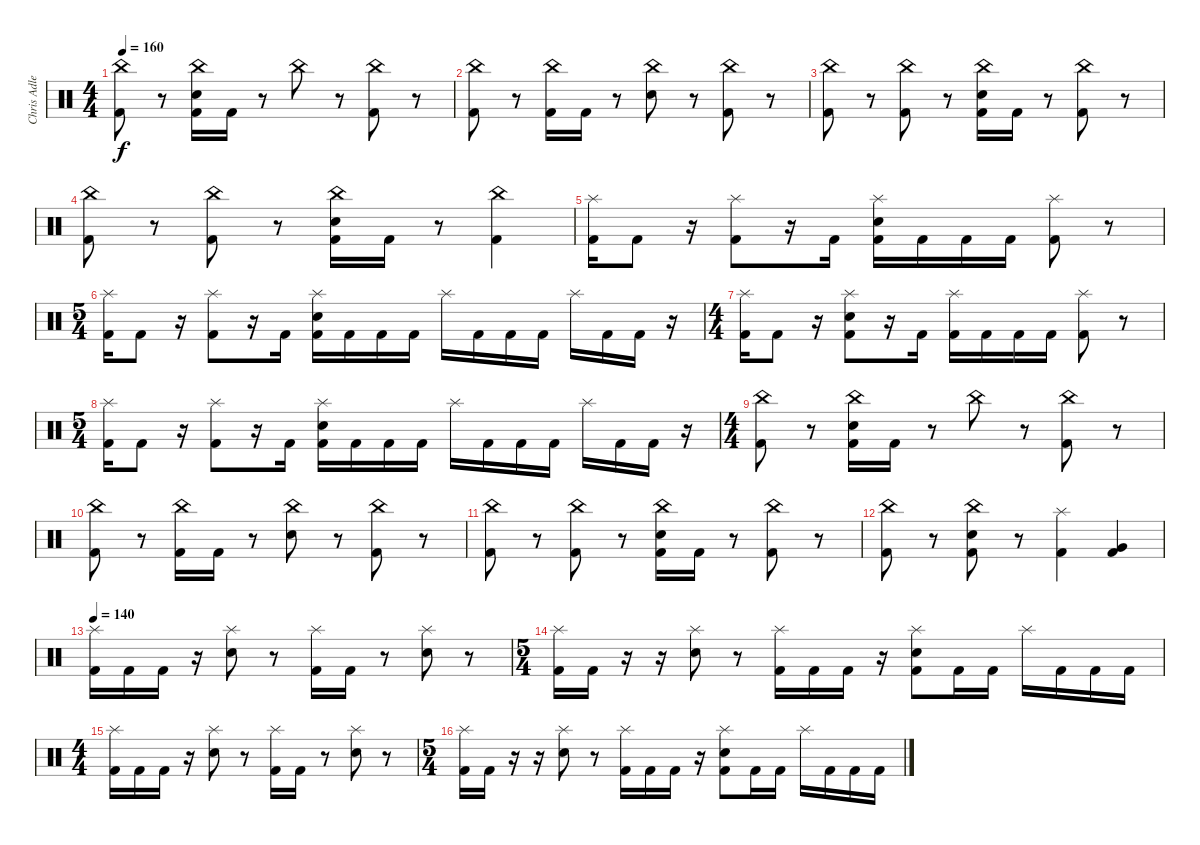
\track ("Chris Adler" "Chris Adle") {instrument percussion}
\staff {score}
\articulation defaults
\ts (4 4)
\tempo 160
\clef neutral
\ks c
("China (hit)" "Kick (hit) 2").8{dy f} r.8 ("China (hit)" "Electric Snare (hit)" "Kick (hit) 2").16 "Kick (hit) 2".16 r.8 "China (hit)".8 r.8 ("China (hit)" "Kick (hit) 2").8 r.8 |
("China (hit)" "Kick (hit) 2").8 r.8 ("China (hit)" "Kick (hit) 2").16 "Kick (hit) 2".16 r.8 ("China (hit)" "Electric Snare (hit)").8 r.8 ("China (hit)" "Kick (hit) 2").8 r.8 |
("China (hit)" "Kick (hit) 2").8 r.8 ("China (hit)" "Kick (hit) 2").8 r.8 ("China (hit)" "Electric Snare (hit)" "Kick (hit) 2").16 "Kick (hit) 2".16 r.8 ("China (hit)" "Kick (hit) 2").8 r.8 |
("China (hit)" "Kick (hit) 2").8 r.8 ("China (hit)" "Kick (hit) 2").8 r.8 ("China (hit)" "Electric Snare (hit)" "Kick (hit) 2").16 "Kick (hit) 2".16 r.8 ("China (hit)" "Kick (hit) 2").4 |
("Splash (hit)" "Kick (hit) 2").16 "Kick (hit) 2".8 r.16 ("Splash (hit)" "Kick (hit) 2").8 r.16 "Kick (hit) 2".16 ("Splash (hit)" "Electric Snare (hit)" "Kick (hit) 2").16 "Kick (hit) 2".16 "Kick (hit) 2".16 "Kick (hit) 2".16 ("Splash (hit)" "Kick (hit) 2").8 r.8 |
\ts (5 4)
("Splash (hit)" "Kick (hit) 2").16 "Kick (hit) 2".8 r.16 ("Splash (hit)" "Kick (hit) 2").8 r.16 "Kick (hit) 2".16 ("Splash (hit)" "Electric Snare (hit)" "Kick (hit) 2").16 "Kick (hit) 2".16 "Kick (hit) 2".16 "Kick (hit) 2".16 "Splash (hit)".16 "Kick (hit) 2".16 "Kick (hit) 2".16 "Kick (hit) 2".16 "Splash (hit)".16 "Kick (hit) 2".16 "Kick (hit) 2".16 r.16 |
\ts (4 4)
("Splash (hit)" "Kick (hit) 2").16 "Kick (hit) 2".8 r.16 ("Splash (hit)" "Electric Snare (hit)" "Kick (hit) 2").8 r.16 "Kick (hit) 2".16 ("Splash (hit)" "Kick (hit) 2").16 "Kick (hit) 2".16 "Kick (hit) 2".16 "Kick (hit) 2".16 ("Splash (hit)" "Kick (hit) 2").8 r.8 |
\ts (5 4)
("Splash (hit)" "Kick (hit) 2").16 "Kick (hit) 2".8 r.16 ("Splash (hit)" "Kick (hit) 2").8 r.16 "Kick (hit) 2".16 ("Splash (hit)" "Electric Snare (hit)" "Kick (hit) 2").16 "Kick (hit) 2".16 "Kick (hit) 2".16 "Kick (hit) 2".16 "Splash (hit)".16 "Kick (hit) 2".16 "Kick (hit) 2".16 "Kick (hit) 2".16 "Splash (hit)".16 "Kick (hit) 2".16 "Kick (hit) 2".16 r.16 |
\ts (4 4)
("China (hit)" "Kick (hit) 2").8 r.8 ("China (hit)" "Electric Snare (hit)" "Kick (hit) 2").16 "Kick (hit) 2".16 r.8 "China (hit)".8 r.8 ("China (hit)" "Kick (hit) 2").8 r.8 |
("China (hit)" "Kick (hit) 2").8 r.8 ("China (hit)" "Kick (hit) 2").16 "Kick (hit) 2".16 r.8 ("China (hit)" "Electric Snare (hit)").8 r.8 ("China (hit)" "Kick (hit) 2").8 r.8 |
("China (hit)" "Kick (hit) 2").8 r.8 ("China (hit)" "Kick (hit) 2").8 r.8 ("China (hit)" "Electric Snare (hit)" "Kick (hit) 2").16 "Kick (hit) 2".16 r.8 ("China (hit)" "Kick (hit) 2").8 r.8 |
("China (hit)" "Kick (hit) 2").8 r.8 ("China (hit)" "Electric Snare (hit)" "Kick (hit) 2").8 r.8 ("Splash (hit)" "Kick (hit) 2").4 ("Very Low Tom (hit)" "Kick (hit) 2").4 |
\tempo 140
("Splash (hit)" "Kick (hit) 2").16 "Kick (hit) 2".16 "Kick (hit) 2".16 r.16 ("Splash (hit)" "Electric Snare (hit)").8 r.8 ("Splash (hit)" "Kick (hit) 2").16 "Kick (hit) 2".16 r.8 ("Splash (hit)" "Electric Snare (hit)").8 r.8 |
\ts (5 4)
("Splash (hit)" "Kick (hit) 2").16 "Kick (hit) 2".16 r.16 r.16 ("Splash (hit)" "Electric Snare (hit)").8 r.8 ("Splash (hit)" "Kick (hit) 2").16 "Kick (hit) 2".16 "Kick (hit) 2".16 r.16 ("Splash (hit)" "Electric Snare (hit)" "Kick (hit) 2").8 "Kick (hit) 2".16 "Kick (hit) 2".16 "Splash (hit)".16 "Kick (hit) 2".16 "Kick (hit) 2".16 "Kick (hit) 2".16 |
\ts (4 4)
("Splash (hit)" "Kick (hit) 2").16 "Kick (hit) 2".16 "Kick (hit) 2".16 r.16 ("Splash (hit)" "Electric Snare (hit)").8 r.8 ("Splash (hit)" "Kick (hit) 2").16 "Kick (hit) 2".16 r.8 ("Splash (hit)" "Electric Snare (hit)").8 r.8 |
\ts (5 4)
("Splash (hit)" "Kick (hit) 2").16 "Kick (hit) 2".16 r.16 r.16 ("Splash (hit)" "Electric Snare (hit)").8 r.8 ("Splash (hit)" "Kick (hit) 2").16 "Kick (hit) 2".16 "Kick (hit) 2".16 r.16 ("Splash (hit)" "Electric Snare (hit)" "Kick (hit) 2").8 "Kick (hit) 2".16 "Kick (hit) 2".16 "Splash (hit)".16 "Kick (hit) 2".16 "Kick (hit) 2".16 "Kick (hit) 2".16
